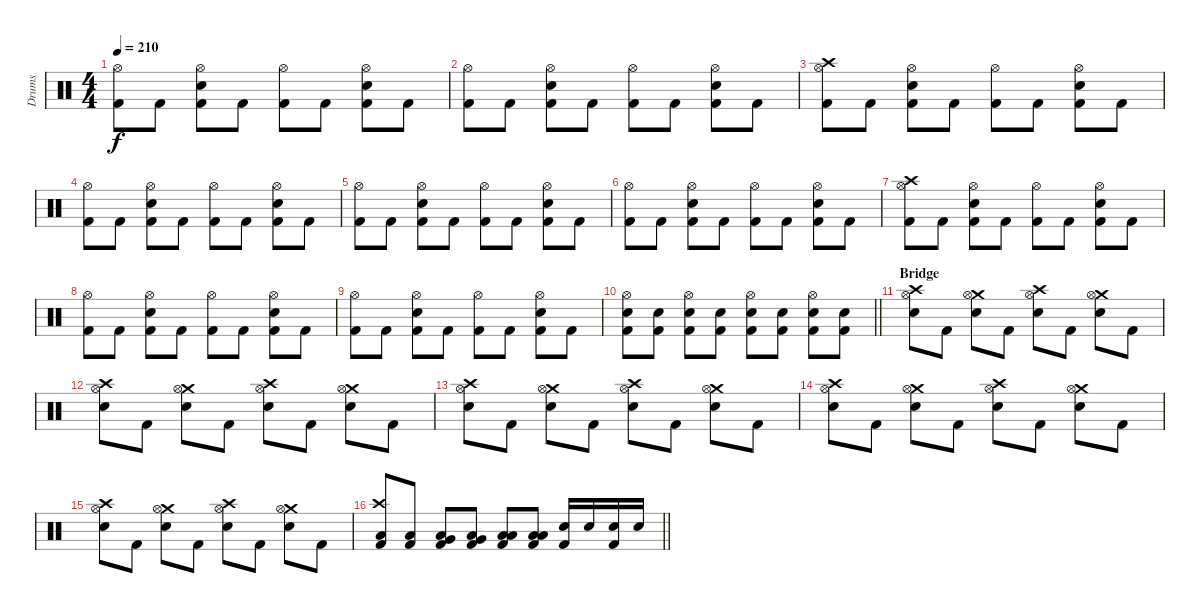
\track ("Drums" "Drums") {instrument percussion}
\staff {score}
\articulation defaults
\ts (4 4)
\tempo 210
\clef neutral
\ks c
("Hi-Hat (open)" "Kick (hit) 2").8{dy f} "Kick (hit) 2".8 ("Hi-Hat (open)" "Snare (hit) 2" "Kick (hit) 2").8 "Kick (hit) 2".8 ("Hi-Hat (open)" "Kick (hit) 2").8 "Kick (hit) 2".8 ("Hi-Hat (open)" "Snare (hit) 2" "Kick (hit) 2").8 "Kick (hit) 2".8 |
("Hi-Hat (open)" "Kick (hit) 2").8 "Kick (hit) 2".8 ("Hi-Hat (open)" "Snare (hit) 2" "Kick (hit) 2").8 "Kick (hit) 2".8 ("Hi-Hat (open)" "Kick (hit) 2").8 "Kick (hit) 2".8 ("Hi-Hat (open)" "Snare (hit) 2" "Kick (hit) 2").8 "Kick (hit) 2".8 |
("Crash high (hit)" "Hi-Hat (open)" "Kick (hit) 2").8 "Kick (hit) 2".8 ("Hi-Hat (open)" "Snare (hit) 2" "Kick (hit) 2").8 "Kick (hit) 2".8 ("Hi-Hat (open)" "Kick (hit) 2").8 "Kick (hit) 2".8 ("Hi-Hat (open)" "Snare (hit) 2" "Kick (hit) 2").8 "Kick (hit) 2".8 |
("Hi-Hat (open)" "Kick (hit) 2").8 "Kick (hit) 2".8 ("Hi-Hat (open)" "Snare (hit) 2" "Kick (hit) 2").8 "Kick (hit) 2".8 ("Hi-Hat (open)" "Kick (hit) 2").8 "Kick (hit) 2".8 ("Hi-Hat (open)" "Snare (hit) 2" "Kick (hit) 2").8 "Kick (hit) 2".8 |
("Hi-Hat (open)" "Kick (hit) 2").8 "Kick (hit) 2".8 ("Hi-Hat (open)" "Snare (hit) 2" "Kick (hit) 2").8 "Kick (hit) 2".8 ("Hi-Hat (open)" "Kick (hit) 2").8 "Kick (hit) 2".8 ("Hi-Hat (open)" "Snare (hit) 2" "Kick (hit) 2").8 "Kick (hit) 2".8 |
("Hi-Hat (open)" "Kick (hit) 2").8 "Kick (hit) 2".8 ("Hi-Hat (open)" "Snare (hit) 2" "Kick (hit) 2").8 "Kick (hit) 2".8 ("Hi-Hat (open)" "Kick (hit) 2").8 "Kick (hit) 2".8 ("Hi-Hat (open)" "Snare (hit) 2" "Kick (hit) 2").8 "Kick (hit) 2".8 |
("Crash high (hit)" "Hi-Hat (open)" "Kick (hit) 2").8 "Kick (hit) 2".8 ("Hi-Hat (open)" "Snare (hit) 2" "Kick (hit) 2").8 "Kick (hit) 2".8 ("Hi-Hat (open)" "Kick (hit) 2").8 "Kick (hit) 2".8 ("Hi-Hat (open)" "Snare (hit) 2" "Kick (hit) 2").8 "Kick (hit) 2".8 |
("Hi-Hat (open)" "Kick (hit) 2").8 "Kick (hit) 2".8 ("Hi-Hat (open)" "Snare (hit) 2" "Kick (hit) 2").8 "Kick (hit) 2".8 ("Hi-Hat (open)" "Kick (hit) 2").8 "Kick (hit) 2".8 ("Hi-Hat (open)" "Snare (hit) 2" "Kick (hit) 2").8 "Kick (hit) 2".8 |
("Hi-Hat (open)" "Kick (hit) 2").8 "Kick (hit) 2".8 ("Hi-Hat (open)" "Snare (hit) 2" "Kick (hit) 2").8 "Kick (hit) 2".8 ("Hi-Hat (open)" "Kick (hit) 2").8 "Kick (hit) 2".8 ("Hi-Hat (open)" "Snare (hit) 2" "Kick (hit) 2").8 "Kick (hit) 2".8 |
\barLineRight lightlight
("Hi-Hat (open)" "Snare (hit) 2" "Kick (hit) 2").8 ("Snare (hit) 2" "Kick (hit) 2").8 ("Hi-Hat (open)" "Snare (hit) 2" "Kick (hit) 2").8 ("Snare (hit) 2" "Kick (hit) 2").8 ("Hi-Hat (open)" "Snare (hit) 2" "Kick (hit) 2").8 ("Snare (hit) 2" "Kick (hit) 2").8 ("Hi-Hat (open)" "Snare (hit) 2" "Kick (hit) 2").8 ("Snare (hit) 2" "Kick (hit) 2").8 |
\section ("" "Bridge")
("Crash high (hit)" "Hi-Hat (open)" "Snare (hit) 2").8 "Kick (hit) 2".8 ("Crash medium (hit)" "Hi-Hat (open)" "Snare (hit) 2").8 "Kick (hit) 2".8 ("Crash high (hit)" "Hi-Hat (open)" "Snare (hit) 2").8 "Kick (hit) 2".8 ("Crash medium (hit)" "Hi-Hat (open)" "Snare (hit) 2").8 "Kick (hit) 2".8 |
("Crash high (hit)" "Hi-Hat (open)" "Snare (hit) 2").8 "Kick (hit) 2".8 ("Crash medium (hit)" "Hi-Hat (open)" "Snare (hit) 2").8 "Kick (hit) 2".8 ("Crash high (hit)" "Hi-Hat (open)" "Snare (hit) 2").8 "Kick (hit) 2".8 ("Crash medium (hit)" "Hi-Hat (open)" "Snare (hit) 2").8 "Kick (hit) 2".8 |
("Crash high (hit)" "Hi-Hat (open)" "Snare (hit) 2").8 "Kick (hit) 2".8 ("Crash medium (hit)" "Hi-Hat (open)" "Snare (hit) 2").8 "Kick (hit) 2".8 ("Crash high (hit)" "Hi-Hat (open)" "Snare (hit) 2").8 "Kick (hit) 2".8 ("Crash medium (hit)" "Hi-Hat (open)" "Snare (hit) 2").8 "Kick (hit) 2".8 |
("Crash high (hit)" "Hi-Hat (open)" "Snare (hit) 2").8 "Kick (hit) 2".8 ("Crash medium (hit)" "Hi-Hat (open)" "Snare (hit) 2").8 "Kick (hit) 2".8 ("Crash high (hit)" "Hi-Hat (open)" "Snare (hit) 2").8 "Kick (hit) 2".8 ("Crash medium (hit)" "Hi-Hat (open)" "Snare (hit) 2").8 "Kick (hit) 2".8 |
("Crash high (hit)" "Hi-Hat (open)" "Snare (hit) 2").8 "Kick (hit) 2".8 ("Crash medium (hit)" "Hi-Hat (open)" "Snare (hit) 2").8 "Kick (hit) 2".8 ("Crash high (hit)" "Hi-Hat (open)" "Snare (hit) 2").8 "Kick (hit) 2".8 ("Crash medium (hit)" "Hi-Hat (open)" "Snare (hit) 2").8 "Kick (hit) 2".8 |
\barLineRight lightlight
("Crash high (hit)" "Low Floor Tom (hit)" "Kick (hit) 2").8 ("Low Floor Tom (hit)" "Kick (hit) 2").8 ("Very Low Tom (hit)" "Low Floor Tom (hit)" "Kick (hit) 2").8 ("Very Low Tom (hit)" "Low Floor Tom (hit)" "Kick (hit) 2").8 ("Low Tom (hit)" "Low Floor Tom (hit)" "Kick (hit) 2").8 ("Low Tom (hit)" "Low Floor Tom (hit)" "Kick (hit) 2").8 ("Snare (hit) 2" "Kick (hit) 2").16 "Snare (hit) 2".16 ("Snare (hit) 2" "Kick (hit) 2").16 "Snare (hit) 2".16
